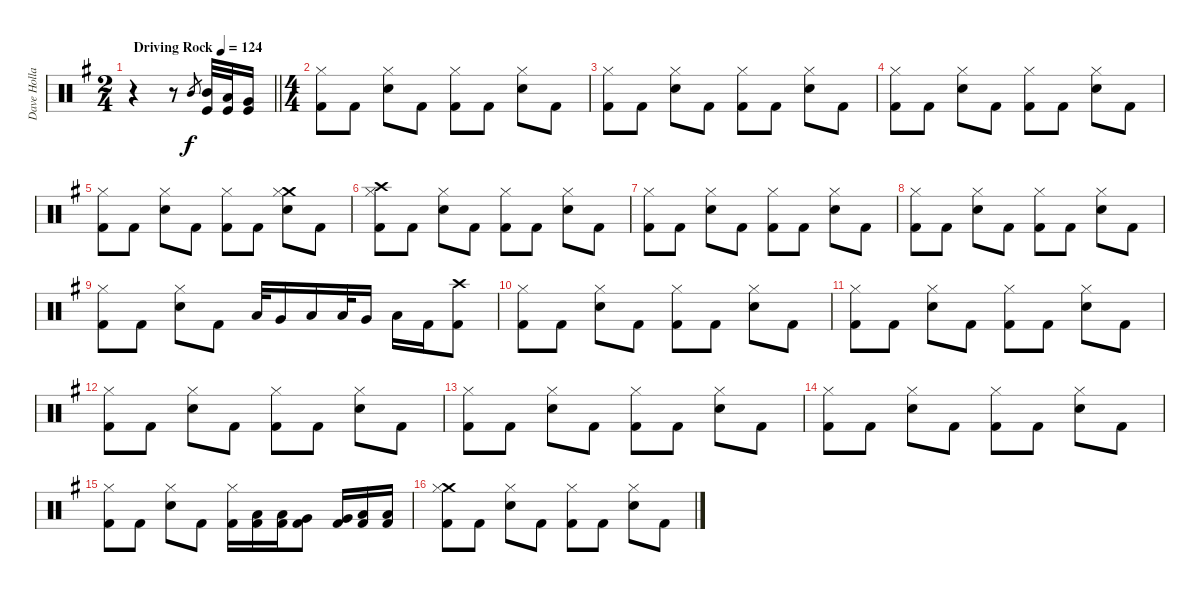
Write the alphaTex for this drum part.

\track ("Dave Holland" "Dave Holla") {instrument percussion}
\staff {score}
\articulation defaults
\ts (2 4)
\tempo (124 "Driving Rock")
\clef neutral
\barLineRight lightlight
\ks g
r.4{dy f} r.8 "Mid Tom (hit)".8{gr} ("Mid Tom (hit)" "Kick (hit)").32 ("Low Tom (hit)" "Kick (hit)").32 ("Very Low Tom (hit)" "Kick (hit)").16 |
\ts (4 4)
("Kick (hit) 2" "Hi-Hat (closed)").8 "Kick (hit) 2".8 ("Snare (hit) 2" "Hi-Hat (closed)").8 "Kick (hit) 2".8 ("Kick (hit) 2" "Hi-Hat (closed)").8 "Kick (hit) 2".8 ("Snare (hit) 2" "Hi-Hat (closed)").8 "Kick (hit) 2".8 |
("Kick (hit) 2" "Hi-Hat (closed)").8 "Kick (hit) 2".8 ("Snare (hit) 2" "Hi-Hat (closed)").8 "Kick (hit) 2".8 ("Kick (hit) 2" "Hi-Hat (closed)").8 "Kick (hit) 2".8 ("Snare (hit) 2" "Hi-Hat (closed)").8 "Kick (hit) 2".8 |
("Kick (hit) 2" "Hi-Hat (closed)").8 "Kick (hit) 2".8 ("Snare (hit) 2" "Hi-Hat (closed)").8 "Kick (hit) 2".8 ("Kick (hit) 2" "Hi-Hat (closed)").8 "Kick (hit) 2".8 ("Snare (hit) 2" "Hi-Hat (closed)").8 "Kick (hit) 2".8 |
("Kick (hit) 2" "Hi-Hat (closed)").8 "Kick (hit) 2".8 ("Snare (hit) 2" "Hi-Hat (closed)").8 "Kick (hit) 2".8 ("Kick (hit) 2" "Hi-Hat (closed)").8 "Kick (hit) 2".8 ("Snare (hit) 2" "Crash medium (hit)" "Hi-Hat (closed)").8 "Kick (hit) 2".8 |
("Kick (hit) 2" "Crash high (hit)" "Hi-Hat (closed)").8 "Kick (hit) 2".8 ("Snare (hit) 2" "Hi-Hat (closed)").8 "Kick (hit) 2".8 ("Kick (hit) 2" "Hi-Hat (closed)").8 "Kick (hit) 2".8 ("Snare (hit) 2" "Hi-Hat (closed)").8 "Kick (hit) 2".8 |
("Kick (hit) 2" "Hi-Hat (closed)").8 "Kick (hit) 2".8 ("Snare (hit) 2" "Hi-Hat (closed)").8 "Kick (hit) 2".8 ("Kick (hit) 2" "Hi-Hat (closed)").8 "Kick (hit) 2".8 ("Snare (hit) 2" "Hi-Hat (closed)").8 "Kick (hit) 2".8 |
("Kick (hit) 2" "Hi-Hat (closed)").8 "Kick (hit) 2".8 ("Snare (hit) 2" "Hi-Hat (closed)").8 "Kick (hit) 2".8 ("Kick (hit) 2" "Hi-Hat (closed)").8 "Kick (hit) 2".8 ("Snare (hit) 2" "Hi-Hat (closed)").8 "Kick (hit) 2".8 |
("Kick (hit) 2" "Hi-Hat (closed)").8 "Kick (hit) 2".8 ("Snare (hit) 2" "Hi-Hat (closed)").8 "Kick (hit) 2".8 "Low Tom (hit)".32 "Very Low Tom (hit)".16 "Low Floor Tom (hit)".16 "Low Tom (hit)".32 "Very Low Tom (hit)".16 "Low Floor Tom (hit)".16 "Kick (hit) 2".16 ("Crash high (hit)" "Kick (hit) 2").8 |
("Kick (hit) 2" "Hi-Hat (closed)").8 "Kick (hit) 2".8 ("Snare (hit) 2" "Hi-Hat (closed)").8 "Kick (hit) 2".8 ("Kick (hit) 2" "Hi-Hat (closed)").8 "Kick (hit) 2".8 ("Snare (hit) 2" "Hi-Hat (closed)").8 "Kick (hit) 2".8 |
("Kick (hit) 2" "Hi-Hat (closed)").8 "Kick (hit) 2".8 ("Snare (hit) 2" "Hi-Hat (closed)").8 "Kick (hit) 2".8 ("Kick (hit) 2" "Hi-Hat (closed)").8 "Kick (hit) 2".8 ("Snare (hit) 2" "Hi-Hat (closed)").8 "Kick (hit) 2".8 |
("Kick (hit) 2" "Hi-Hat (closed)").8 "Kick (hit) 2".8 ("Snare (hit) 2" "Hi-Hat (closed)").8 "Kick (hit) 2".8 ("Kick (hit) 2" "Hi-Hat (closed)").8 "Kick (hit) 2".8 ("Snare (hit) 2" "Hi-Hat (closed)").8 "Kick (hit) 2".8 |
("Kick (hit) 2" "Hi-Hat (closed)").8 "Kick (hit) 2".8 ("Snare (hit) 2" "Hi-Hat (closed)").8 "Kick (hit) 2".8 ("Kick (hit) 2" "Hi-Hat (closed)").8 "Kick (hit) 2".8 ("Snare (hit) 2" "Hi-Hat (closed)").8 "Kick (hit) 2".8 |
("Kick (hit) 2" "Hi-Hat (closed)").8 "Kick (hit) 2".8 ("Snare (hit) 2" "Hi-Hat (closed)").8 "Kick (hit) 2".8 ("Kick (hit) 2" "Hi-Hat (closed)").8 "Kick (hit) 2".8 ("Snare (hit) 2" "Hi-Hat (closed)").8 "Kick (hit) 2".8 |
("Kick (hit) 2" "Hi-Hat (closed)").8 "Kick (hit) 2".8 ("Snare (hit) 2" "Hi-Hat (closed)").8 "Kick (hit) 2".8 ("Kick (hit) 2" "Hi-Hat (closed)").16 ("Kick (hit) 2" "Low Tom (hit)").16 ("Kick (hit) 2" "Low Tom (hit)").16 ("Kick (hit) 2" "Very Low Tom (hit)").8 ("Kick (hit) 2" "Very Low Tom (hit)").16 ("Kick (hit) 2" "Low Floor Tom (hit)").16 ("Kick (hit) 2" "Low Floor Tom (hit)").16 |
("Kick (hit) 2" "Crash medium (hit)" "Hi-Hat (closed)").8 "Kick (hit) 2".8 ("Snare (hit) 2" "Hi-Hat (closed)").8 "Kick (hit) 2".8 ("Kick (hit) 2" "Hi-Hat (closed)").8 "Kick (hit) 2".8 ("Snare (hit) 2" "Hi-Hat (closed)").8 "Kick (hit) 2".8
